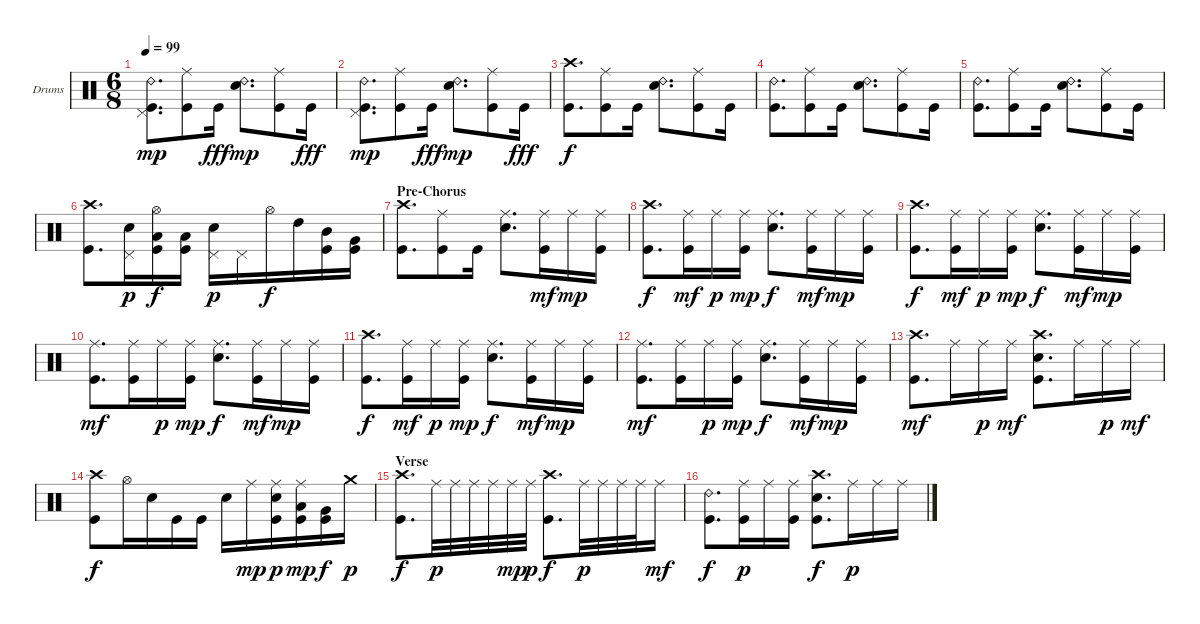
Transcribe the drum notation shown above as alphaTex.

\defaultSystemsLayout 4
\bracketExtendMode nobrackets
\firstSystemTrackNameOrientation horizontal
\otherSystemsTrackNameOrientation horizontal
\track ("Dave Abbruzzese" "Drums") {solo instrument percussion}
\staff {score}
\articulation defaults
\ts (6 8)
\tempo 99
\clef neutral
\ks c
("Ride (bell) 2" "Pedal Hi-Hat (hit)" "Kick (hit)").8{d dy mp} ("Ride (middle)" "Kick (hit)").8 "Kick (hit)".16{dy fff} ("Ride (bell) 2" "Snare (hit) 2").8{d dy mp} ("Ride (middle)" "Kick (hit)").8 "Kick (hit)".16{dy fff} |
("Ride (bell) 2" "Pedal Hi-Hat (hit)" "Kick (hit)").8{d dy mp} ("Ride (middle)" "Kick (hit)").8 "Kick (hit)".16{dy fff} ("Ride (bell) 2" "Snare (hit) 2").8{d dy mp} ("Ride (middle)" "Kick (hit)").8 "Kick (hit)".16{dy fff} |
("Crash high (hit)" "Kick (hit)").8{d dy f} ("Ride (middle)" "Kick (hit)").8 "Kick (hit)".16 ("Ride (bell) 2" "Snare (hit) 2").8{d} ("Ride (middle)" "Kick (hit)").8 "Kick (hit)".16 |
("Ride (bell) 2" "Kick (hit)").8{d} ("Ride (middle)" "Kick (hit)").8 "Kick (hit)".16 ("Ride (bell) 2" "Snare (hit) 2").8{d} ("Ride (middle)" "Kick (hit)").8 "Kick (hit)".16 |
("Ride (bell) 2" "Kick (hit)").8{d} ("Ride (middle)" "Kick (hit)").8 "Kick (hit)".16 ("Ride (bell) 2" "Snare (hit) 2").8{d} ("Ride (middle)" "Kick (hit)").8 "Kick (hit)".16 |
("Crash high (hit)" "Kick (hit)").8{d} ("Pedal Hi-Hat (hit)" "Snare (hit) 2").16{dy p} ("Hi-Hat (open)" "Low Tom (hit)" "Kick (hit)").16{dy f} ("Low Tom (hit)" "Kick (hit)").16 ("Pedal Hi-Hat (hit)" "Snare (hit) 2").16{dy p} "Pedal Hi-Hat (hit)".16 "Hi-Hat (open)".16{dy f} "High Tom (hit)".16 ("Mid Tom (hit)" "Kick (hit)").16 ("Very Low Tom (hit)" "Kick (hit)").16 |
\section ("" "Pre-Chorus")
("Crash high (hit)" "Kick (hit)").8{d} ("Ride (middle)" "Kick (hit)").8 "Kick (hit)".16 ("Ride (middle)" "Snare (hit) 2").8{d} ("Ride (middle)" "Kick (hit)").16{dy mf} "Ride (middle)".16{dy mp} ("Ride (middle)" "Kick (hit)").16 |
("Crash high (hit)" "Kick (hit)").8{d dy f} ("Ride (middle)" "Kick (hit)").16{dy mf} "Ride (middle)".16{dy p} ("Ride (middle)" "Kick (hit)").16{dy mp} ("Ride (middle)" "Snare (hit) 2").8{d dy f} ("Ride (middle)" "Kick (hit)").16{dy mf} "Ride (middle)".16{dy mp} ("Ride (middle)" "Kick (hit)").16 |
("Crash high (hit)" "Kick (hit)").8{d dy f} ("Ride (middle)" "Kick (hit)").16{dy mf} "Ride (middle)".16{dy p} ("Ride (middle)" "Kick (hit)").16{dy mp} ("Ride (middle)" "Snare (hit) 2").8{d dy f} ("Ride (middle)" "Kick (hit)").16{dy mf} "Ride (middle)".16{dy mp} ("Ride (middle)" "Kick (hit)").16 |
("Ride (middle)" "Kick (hit)").8{d dy mf} ("Ride (middle)" "Kick (hit)").16 "Ride (middle)".16{dy p} ("Ride (middle)" "Kick (hit)").16{dy mp} ("Ride (middle)" "Snare (hit) 2").8{d dy f} ("Ride (middle)" "Kick (hit)").16{dy mf} "Ride (middle)".16{dy mp} ("Ride (middle)" "Kick (hit)").16 |
("Crash high (hit)" "Kick (hit)").8{d dy f} ("Ride (middle)" "Kick (hit)").16{dy mf} "Ride (middle)".16{dy p} ("Ride (middle)" "Kick (hit)").16{dy mp} ("Ride (middle)" "Snare (hit) 2").8{d dy f} ("Ride (middle)" "Kick (hit)").16{dy mf} "Ride (middle)".16{dy mp} ("Ride (middle)" "Kick (hit)").16 |
("Ride (middle)" "Kick (hit)").8{d dy mf} ("Ride (middle)" "Kick (hit)").16 "Ride (middle)".16{dy p} ("Ride (middle)" "Kick (hit)").16{dy mp} ("Ride (middle)" "Snare (hit) 2").8{d dy f} ("Ride (middle)" "Kick (hit)").16{dy mf} "Ride (middle)".16{dy mp} ("Ride (middle)" "Kick (hit)").16 |
("Crash high (hit)" "Kick (hit)").8{d dy mf} "Ride (middle)".16 "Ride (middle)".16{dy p} "Ride (middle)".16{dy mf} ("Crash high (hit)" "Snare (hit) 2" "Kick (hit)").8{d} "Ride (middle)".16 "Ride (middle)".16{dy p} "Ride (middle)".16{dy mf} |
("Crash high (hit)" "Kick (hit)").8{dy f} "Hi-Hat (open)".16 "Snare (hit) 2".16 "Kick (hit)".16 "Kick (hit)".16 "Snare (hit) 2".16 "Ride (middle)".16{dy mp} ("Ride (middle)" "Snare (hit) 2" "Kick (hit)").16{dy p} ("Ride (middle)" "Low Tom (hit)" "Kick (hit)").16{dy mp} ("Very Low Tom (hit)" "Kick (hit)").16{dy f} "Crash medium (hit)".16{dy p} |
\section ("" "Verse")
("Crash high (hit)" "Kick (hit)").8{d dy f} "Ride (middle)".32{dy p} "Ride (middle)".32 "Ride (middle)".32 "Ride (middle)".32 "Ride (middle)".32{dy mp} "Ride (middle)".32{dy p} ("Crash high (hit)" "Kick (hit)").8{d dy f} "Ride (middle)".32{dy p} "Ride (middle)".32 "Ride (middle)".32 "Ride (middle)".32 "Ride (middle)".16{dy mf} |
("Ride (bell) 2" "Kick (hit)").8{d dy f} ("Ride (middle)" "Kick (hit)").16{dy p} "Ride (middle)".16 ("Ride (middle)" "Kick (hit)").16 ("Crash high (hit)" "Snare (hit) 2" "Kick (hit)").8{d dy f} "Ride (middle)".16{dy p} "Ride (middle)".16 "Ride (middle)".16
